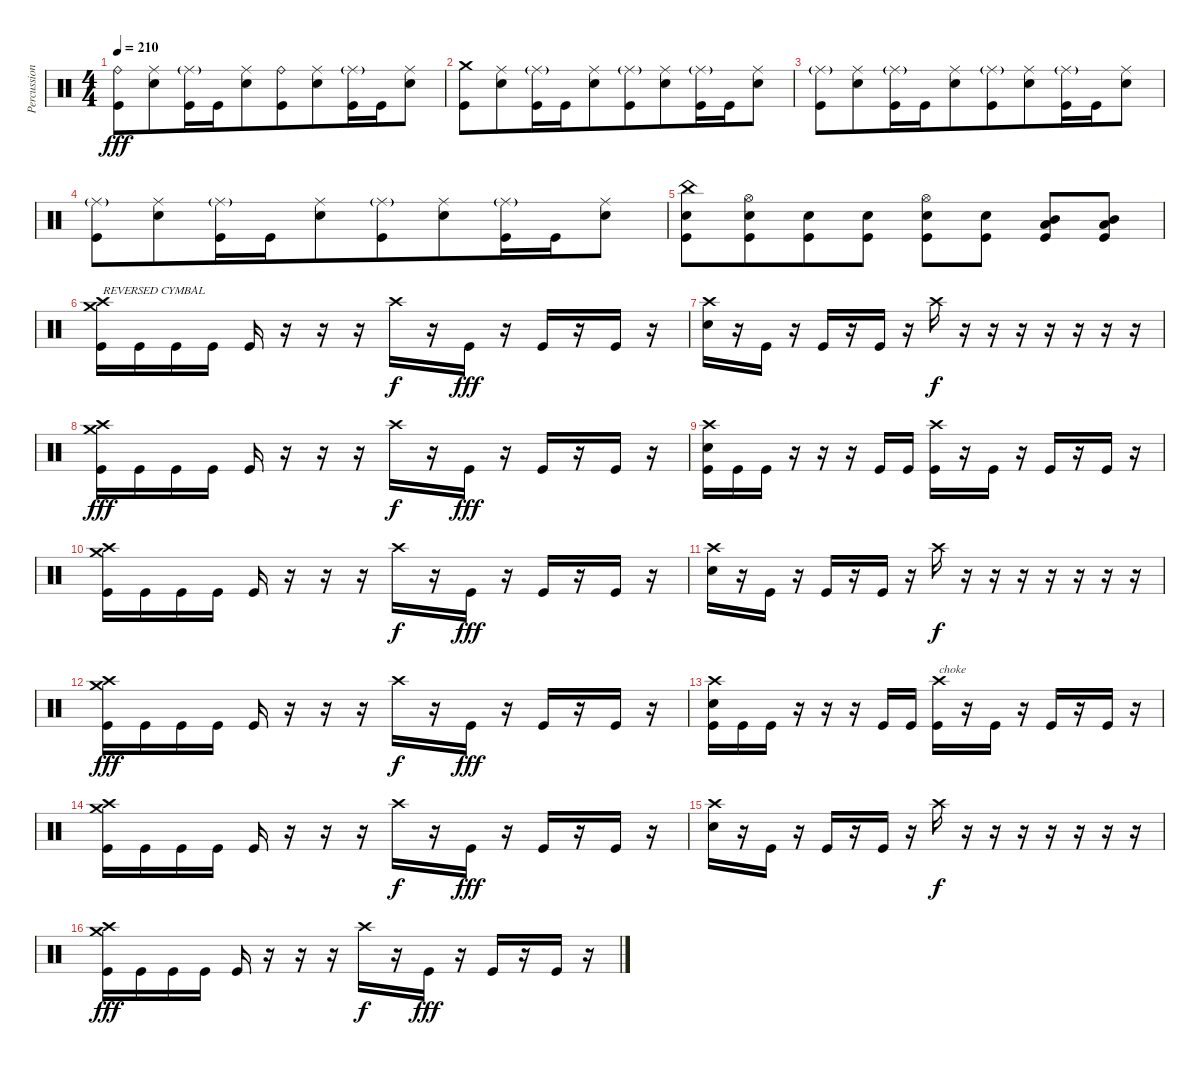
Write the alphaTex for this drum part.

\track ("Percussion" "Percussion") {instrument percussion}
\staff {score}
\articulation defaults
\ts (4 4)
\tempo 210
\clef neutral
\ks c
("Ride (bell)" "Kick (hit)").8{dy fff} ("Ride (middle)" "Snare (hit) 2").8{beam merge} ("Ride (middle)"{g} "Kick (hit)").16 "Kick (hit)".16 ("Ride (middle)" "Snare (hit) 2").8{beam merge} ("Ride (bell)" "Kick (hit)").8 ("Ride (middle)" "Snare (hit) 2").8{beam merge} ("Ride (middle)"{g} "Kick (hit)").16 "Kick (hit)".16 ("Ride (middle)" "Snare (hit) 2").8 |
("Crash medium (hit)" "Kick (hit)").8 ("Ride (middle)" "Snare (hit) 2").8{beam merge} ("Ride (middle)"{g} "Kick (hit)").16 "Kick (hit)".16 ("Ride (middle)" "Snare (hit) 2").8{beam merge} ("Ride (middle)"{g} "Kick (hit)").8 ("Ride (middle)" "Snare (hit) 2").8{beam merge} ("Ride (middle)"{g} "Kick (hit)").16 "Kick (hit)".16 ("Ride (middle)" "Snare (hit) 2").8 |
("Ride (middle)"{g} "Kick (hit)").8 ("Ride (middle)" "Snare (hit) 2").8{beam merge} ("Ride (middle)"{g} "Kick (hit)").16 "Kick (hit)".16 ("Ride (middle)" "Snare (hit) 2").8{beam merge} ("Ride (middle)"{g} "Kick (hit)").8 ("Ride (middle)" "Snare (hit) 2").8{beam merge} ("Ride (middle)"{g} "Kick (hit)").16 "Kick (hit)".16 ("Ride (middle)" "Snare (hit) 2").8 |
("Ride (middle)"{g} "Kick (hit)").8 ("Ride (middle)" "Snare (hit) 2").8{beam merge} ("Ride (middle)"{g} "Kick (hit)").16 "Kick (hit)".16 ("Ride (middle)" "Snare (hit) 2").8{beam merge} ("Ride (middle)"{g} "Kick (hit)").8 ("Ride (middle)" "Snare (hit) 2").8{beam merge} ("Ride (middle)"{g} "Kick (hit)").16 "Kick (hit)".16 ("Ride (middle)" "Snare (hit) 2").8 |
("China (hit)" "Snare (hit) 2" "Kick (hit)").8 ("Hi-Hat (open)" "Snare (hit) 2" "Kick (hit)").8{beam merge} ("Snare (hit) 2" "Kick (hit)").8 ("Snare (hit) 2" "Kick (hit)").8 ("Hi-Hat (open)" "Snare (hit) 2" "Kick (hit)").8{beam merge} ("Snare (hit) 2" "Kick (hit)").8 ("Low Floor Tom (hit)" "Mid Tom (hit)" "Kick (hit)").8{beam merge} ("Mid Tom (hit)" "Low Floor Tom (hit)" "Kick (hit)").8 |
("Crash medium (hit)" "Crash high (hit)" "Kick (hit)").16{txt "REVERSED CYMBAL"} "Kick (hit)".16 "Kick (hit)".16 "Kick (hit)".16 "Kick (hit)".16 r.16 r.16 r.16 "Crash high (hit)".16{dy f} r.16 "Kick (hit)".16{dy fff} r.16 "Kick (hit)".16 r.16 "Kick (hit)".16 r.16 |
("Crash high (hit)" "Snare (hit) 2").16 r.16 "Kick (hit)".16 r.16 "Kick (hit)".16 r.16 "Kick (hit)".16 r.16 "Crash high (hit)".16{dy f} r.16 r.16 r.16 r.16 r.16 r.16 r.16 |
("Crash medium (hit)" "Crash high (hit)" "Kick (hit)").16{dy fff} "Kick (hit)".16 "Kick (hit)".16 "Kick (hit)".16 "Kick (hit)".16 r.16 r.16 r.16 "Crash high (hit)".16{dy f} r.16 "Kick (hit)".16{dy fff} r.16 "Kick (hit)".16 r.16 "Kick (hit)".16 r.16 |
("Crash high (hit)" "Snare (hit) 2" "Kick (hit)").16 "Kick (hit)".16 "Kick (hit)".16 r.16 r.16 r.16 "Kick (hit)".16 "Kick (hit)".16 ("Crash high (hit)" "Kick (hit)").16 r.16 "Kick (hit)".16 r.16 "Kick (hit)".16 r.16 "Kick (hit)".16 r.16 |
("Crash medium (hit)" "Crash high (hit)" "Kick (hit)").16 "Kick (hit)".16 "Kick (hit)".16 "Kick (hit)".16 "Kick (hit)".16 r.16 r.16 r.16 "Crash high (hit)".16{dy f} r.16 "Kick (hit)".16{dy fff} r.16 "Kick (hit)".16 r.16 "Kick (hit)".16 r.16 |
("Crash high (hit)" "Snare (hit) 2").16 r.16 "Kick (hit)".16 r.16 "Kick (hit)".16 r.16 "Kick (hit)".16 r.16 "Crash high (hit)".16{dy f} r.16 r.16 r.16 r.16 r.16 r.16 r.16 |
("Crash medium (hit)" "Crash high (hit)" "Kick (hit)").16{dy fff} "Kick (hit)".16 "Kick (hit)".16 "Kick (hit)".16 "Kick (hit)".16 r.16 r.16 r.16 "Crash high (hit)".16{dy f} r.16 "Kick (hit)".16{dy fff} r.16 "Kick (hit)".16 r.16 "Kick (hit)".16 r.16 |
("Crash high (hit)" "Snare (hit) 2" "Kick (hit)").16 "Kick (hit)".16 "Kick (hit)".16 r.16 r.16 r.16 "Kick (hit)".16 "Kick (hit)".16 ("Crash high (hit)" "Kick (hit)").16{txt "choke"} r.16 "Kick (hit)".16 r.16 "Kick (hit)".16 r.16 "Kick (hit)".16 r.16 |
("Crash medium (hit)" "Crash high (hit)" "Kick (hit)").16 "Kick (hit)".16 "Kick (hit)".16 "Kick (hit)".16 "Kick (hit)".16 r.16 r.16 r.16 "Crash high (hit)".16{dy f} r.16 "Kick (hit)".16{dy fff} r.16 "Kick (hit)".16 r.16 "Kick (hit)".16 r.16 |
("Crash high (hit)" "Snare (hit) 2").16 r.16 "Kick (hit)".16 r.16 "Kick (hit)".16 r.16 "Kick (hit)".16 r.16 "Crash high (hit)".16{dy f} r.16 r.16 r.16 r.16 r.16 r.16 r.16 |
("Crash medium (hit)" "Crash high (hit)" "Kick (hit)").16{dy fff} "Kick (hit)".16 "Kick (hit)".16 "Kick (hit)".16 "Kick (hit)".16 r.16 r.16 r.16 "Crash high (hit)".16{dy f} r.16 "Kick (hit)".16{dy fff} r.16 "Kick (hit)".16 r.16 "Kick (hit)".16 r.16
